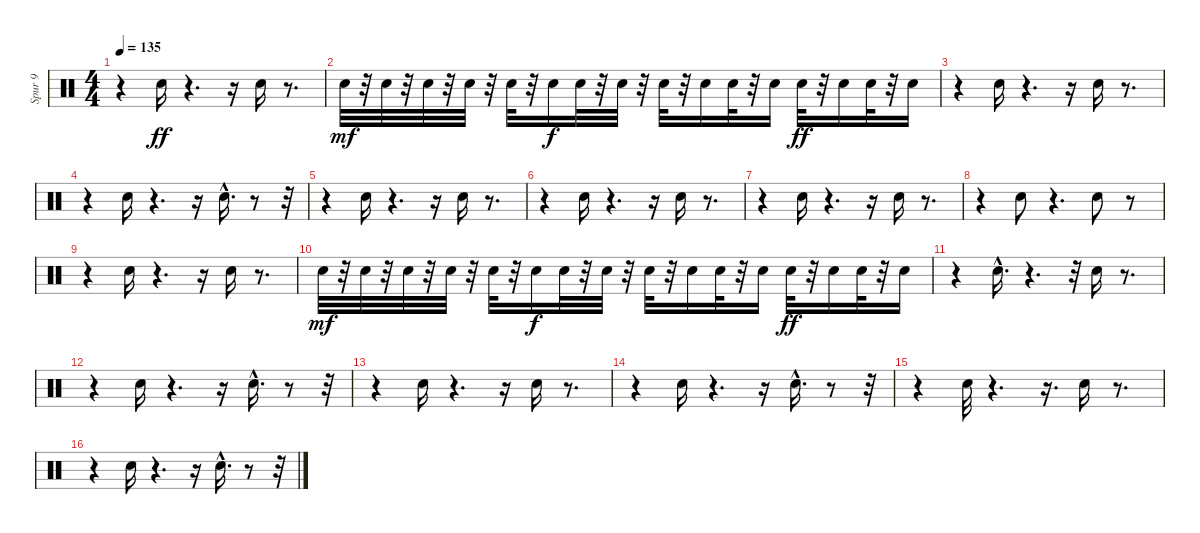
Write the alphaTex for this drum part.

\track ("Spur 9" "Spur 9") {instrument percussion}
\staff {score}
\articulation defaults
\ts (4 4)
\tempo 135
\clef neutral
\ks c
r.4{dy ff} "Electric Snare (hit)".16 r.4{d} r.16 "Electric Snare (hit)".16 r.8{d} |
"Electric Snare (hit)".32{dy mf} r.32 "Electric Snare (hit)".32 r.32 "Electric Snare (hit)".32 r.32 "Electric Snare (hit)".32 r.32 "Electric Snare (hit)".32 r.32 "Electric Snare (hit)".16{dy f} "Electric Snare (hit)".32 r.32 "Electric Snare (hit)".32 r.32 "Electric Snare (hit)".32 r.32 "Electric Snare (hit)".16 "Electric Snare (hit)".32 r.32 "Electric Snare (hit)".16 "Electric Snare (hit)".32{dy ff} r.32 "Electric Snare (hit)".16 "Electric Snare (hit)".32 r.32 "Electric Snare (hit)".16 |
r.4 "Electric Snare (hit)".16 r.4{d} r.16 "Electric Snare (hit)".16 r.8{d} |
r.4 "Electric Snare (hit)".16 r.4{d} r.16 "Electric Snare (hit)"{hac}.16{d} r.8 r.32 |
r.4 "Electric Snare (hit)".16 r.4{d} r.16 "Electric Snare (hit)".16 r.8{d} |
r.4 "Electric Snare (hit)".16 r.4{d} r.16 "Electric Snare (hit)".16 r.8{d} |
r.4 "Electric Snare (hit)".16 r.4{d} r.16 "Electric Snare (hit)".16 r.8{d} |
r.4 "Electric Snare (hit)".8 r.4{d} "Electric Snare (hit)".8 r.8 |
r.4 "Electric Snare (hit)".16 r.4{d} r.16 "Electric Snare (hit)".16 r.8{d} |
"Electric Snare (hit)".32{dy mf} r.32 "Electric Snare (hit)".32 r.32 "Electric Snare (hit)".32 r.32 "Electric Snare (hit)".32 r.32 "Electric Snare (hit)".32 r.32 "Electric Snare (hit)".16{dy f} "Electric Snare (hit)".32 r.32 "Electric Snare (hit)".32 r.32 "Electric Snare (hit)".32 r.32 "Electric Snare (hit)".16 "Electric Snare (hit)".32 r.32 "Electric Snare (hit)".16 "Electric Snare (hit)".32{dy ff} r.32 "Electric Snare (hit)".16 "Electric Snare (hit)".32 r.32 "Electric Snare (hit)".16 |
r.4 "Electric Snare (hit)"{hac}.16{d} r.4{d} r.32 "Electric Snare (hit)".16 r.8{d} |
r.4 "Electric Snare (hit)".16 r.4{d} r.16 "Electric Snare (hit)"{hac}.16{d} r.8 r.32 |
r.4 "Electric Snare (hit)".16 r.4{d} r.16 "Electric Snare (hit)".16 r.8{d} |
r.4 "Electric Snare (hit)".16 r.4{d} r.16 "Electric Snare (hit)"{hac}.16{d} r.8 r.32 |
r.4 "Electric Snare (hit)".32 r.4{d} r.16{d} "Electric Snare (hit)".16 r.8{d} |
r.4 "Electric Snare (hit)".16 r.4{d} r.16 "Electric Snare (hit)"{hac}.16{d} r.8 r.32
